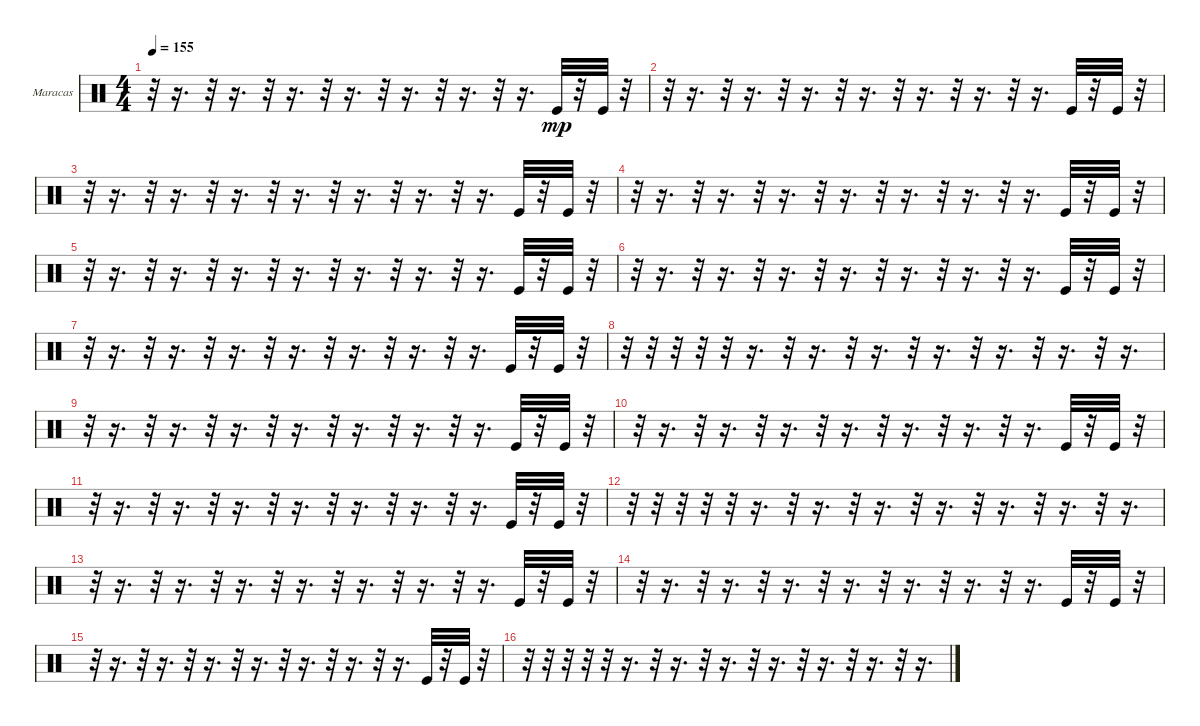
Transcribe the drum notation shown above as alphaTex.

\bracketExtendMode groupsimilarinstruments
\firstSystemTrackNameOrientation horizontal
\otherSystemsTrackNameOrientation horizontal
\track ("Е. Кулаков" "Maracas") {instrument percussion}
\staff {score}
\articulation defaults
\ts (4 4)
\tempo 155
\clef neutral
\ks c
r.32{dy mp} r.16{d} r.32 r.16{d} r.32 r.16{d} r.32 r.16{d} r.32 r.16{d} r.32 r.16{d} r.32 r.16{d} "Kick (hit)".32 r.32 "Kick (hit)".32 r.32 |
r.32 r.16{d} r.32 r.16{d} r.32 r.16{d} r.32 r.16{d} r.32 r.16{d} r.32 r.16{d} r.32 r.16{d} "Kick (hit)".32 r.32 "Kick (hit)".32 r.32 |
r.32 r.16{d} r.32 r.16{d} r.32 r.16{d} r.32 r.16{d} r.32 r.16{d} r.32 r.16{d} r.32 r.16{d} "Kick (hit)".32 r.32 "Kick (hit)".32 r.32 |
r.32 r.16{d} r.32 r.16{d} r.32 r.16{d} r.32 r.16{d} r.32 r.16{d} r.32 r.16{d} r.32 r.16{d} "Kick (hit)".32 r.32 "Kick (hit)".32 r.32 |
r.32 r.16{d} r.32 r.16{d} r.32 r.16{d} r.32 r.16{d} r.32 r.16{d} r.32 r.16{d} r.32 r.16{d} "Kick (hit)".32 r.32 "Kick (hit)".32 r.32 |
r.32 r.16{d} r.32 r.16{d} r.32 r.16{d} r.32 r.16{d} r.32 r.16{d} r.32 r.16{d} r.32 r.16{d} "Kick (hit)".32 r.32 "Kick (hit)".32 r.32 |
r.32 r.16{d} r.32 r.16{d} r.32 r.16{d} r.32 r.16{d} r.32 r.16{d} r.32 r.16{d} r.32 r.16{d} "Kick (hit)".32 r.32 "Kick (hit)".32 r.32 |
r.32 r.32 r.32 r.32 r.32 r.16{d} r.32 r.16{d} r.32 r.16{d} r.32 r.16{d} r.32 r.16{d} r.32 r.16{d} r.32 r.16{d} |
r.32 r.16{d} r.32 r.16{d} r.32 r.16{d} r.32 r.16{d} r.32 r.16{d} r.32 r.16{d} r.32 r.16{d} "Kick (hit)".32 r.32 "Kick (hit)".32 r.32 |
r.32 r.16{d} r.32 r.16{d} r.32 r.16{d} r.32 r.16{d} r.32 r.16{d} r.32 r.16{d} r.32 r.16{d} "Kick (hit)".32 r.32 "Kick (hit)".32 r.32 |
r.32 r.16{d} r.32 r.16{d} r.32 r.16{d} r.32 r.16{d} r.32 r.16{d} r.32 r.16{d} r.32 r.16{d} "Kick (hit)".32 r.32 "Kick (hit)".32 r.32 |
r.32 r.32 r.32 r.32 r.32 r.16{d} r.32 r.16{d} r.32 r.16{d} r.32 r.16{d} r.32 r.16{d} r.32 r.16{d} r.32 r.16{d} |
r.32 r.16{d} r.32 r.16{d} r.32 r.16{d} r.32 r.16{d} r.32 r.16{d} r.32 r.16{d} r.32 r.16{d} "Kick (hit)".32 r.32 "Kick (hit)".32 r.32 |
r.32 r.16{d} r.32 r.16{d} r.32 r.16{d} r.32 r.16{d} r.32 r.16{d} r.32 r.16{d} r.32 r.16{d} "Kick (hit)".32 r.32 "Kick (hit)".32 r.32 |
r.32 r.16{d} r.32 r.16{d} r.32 r.16{d} r.32 r.16{d} r.32 r.16{d} r.32 r.16{d} r.32 r.16{d} "Kick (hit)".32 r.32 "Kick (hit)".32 r.32 |
r.32 r.32 r.32 r.32 r.32 r.16{d} r.32 r.16{d} r.32 r.16{d} r.32 r.16{d} r.32 r.16{d} r.32 r.16{d} r.32 r.16{d}
